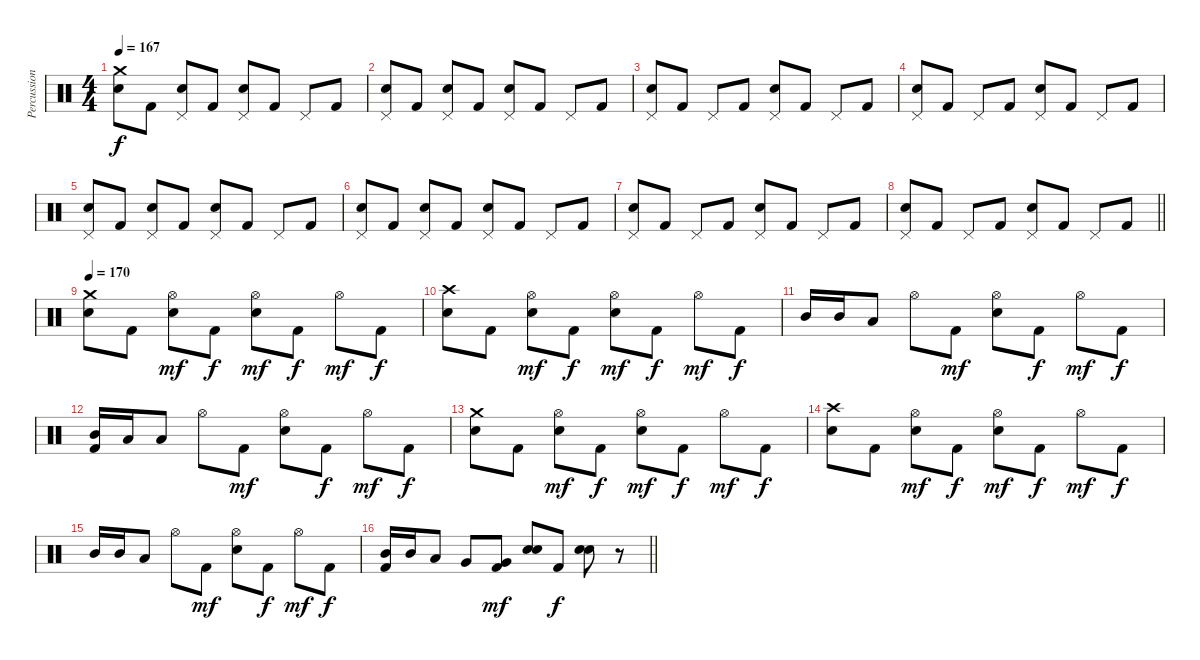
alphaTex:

\track ("Percussion" "Percussion") {instrument percussion}
\staff {score}
\articulation defaults
\ts (4 4)
\section ("" "")
\tempo 167
\clef neutral
\ks c
("Crash medium (hit)" "Electric Snare (hit)").8{dy f} "Kick (hit) 2".8 ("Pedal Hi-Hat (hit)" "Electric Snare (hit)").8 "Kick (hit) 2".8 ("Pedal Hi-Hat (hit)" "Electric Snare (hit)").8 "Kick (hit) 2".8 "Pedal Hi-Hat (hit)".8 "Kick (hit) 2".8 |
("Pedal Hi-Hat (hit)" "Electric Snare (hit)").8 "Kick (hit) 2".8 ("Pedal Hi-Hat (hit)" "Electric Snare (hit)").8 "Kick (hit) 2".8 ("Pedal Hi-Hat (hit)" "Electric Snare (hit)").8 "Kick (hit) 2".8 "Pedal Hi-Hat (hit)".8 "Kick (hit) 2".8 |
("Pedal Hi-Hat (hit)" "Electric Snare (hit)").8 "Kick (hit) 2".8 "Pedal Hi-Hat (hit)".8 "Kick (hit) 2".8 ("Pedal Hi-Hat (hit)" "Electric Snare (hit)").8 "Kick (hit) 2".8 "Pedal Hi-Hat (hit)".8 "Kick (hit) 2".8 |
("Pedal Hi-Hat (hit)" "Electric Snare (hit)").8 "Kick (hit) 2".8 "Pedal Hi-Hat (hit)".8 "Kick (hit) 2".8 ("Pedal Hi-Hat (hit)" "Electric Snare (hit)").8 "Kick (hit) 2".8 "Pedal Hi-Hat (hit)".8 "Kick (hit) 2".8 |
("Pedal Hi-Hat (hit)" "Electric Snare (hit)").8 "Kick (hit) 2".8 ("Pedal Hi-Hat (hit)" "Electric Snare (hit)").8 "Kick (hit) 2".8 ("Pedal Hi-Hat (hit)" "Electric Snare (hit)").8 "Kick (hit) 2".8 "Pedal Hi-Hat (hit)".8 "Kick (hit) 2".8 |
("Pedal Hi-Hat (hit)" "Electric Snare (hit)").8 "Kick (hit) 2".8 ("Pedal Hi-Hat (hit)" "Electric Snare (hit)").8 "Kick (hit) 2".8 ("Pedal Hi-Hat (hit)" "Electric Snare (hit)").8 "Kick (hit) 2".8 "Pedal Hi-Hat (hit)".8 "Kick (hit) 2".8 |
("Pedal Hi-Hat (hit)" "Electric Snare (hit)").8 "Kick (hit) 2".8 "Pedal Hi-Hat (hit)".8 "Kick (hit) 2".8 ("Pedal Hi-Hat (hit)" "Electric Snare (hit)").8 "Kick (hit) 2".8 "Pedal Hi-Hat (hit)".8 "Kick (hit) 2".8 |
\barLineRight lightlight
("Pedal Hi-Hat (hit)" "Electric Snare (hit)").8 "Kick (hit) 2".8 "Pedal Hi-Hat (hit)".8 "Kick (hit) 2".8 ("Pedal Hi-Hat (hit)" "Electric Snare (hit)").8 "Kick (hit) 2".8 "Pedal Hi-Hat (hit)".8 "Kick (hit) 2".8 |
\section ("" "")
\tempo 170
("Crash medium (hit)" "Electric Snare (hit)").8 "Kick (hit) 2".8 ("Hi-Hat (open)" "Electric Snare (hit)").8{dy mf} "Kick (hit) 2".8{dy f} ("Hi-Hat (open)" "Electric Snare (hit)").8{dy mf} "Kick (hit) 2".8{dy f} "Hi-Hat (open)".8{dy mf} "Kick (hit) 2".8{dy f} |
("Crash high (hit)" "Electric Snare (hit)").8 "Kick (hit) 2".8 ("Hi-Hat (open)" "Electric Snare (hit)").8{dy mf} "Kick (hit) 2".8{dy f} ("Hi-Hat (open)" "Electric Snare (hit)").8{dy mf} "Kick (hit) 2".8{dy f} "Hi-Hat (open)".8{dy mf} "Kick (hit) 2".8{dy f} |
"Mid Tom (hit)".16 "Mid Tom (hit)".16 "Low Tom (hit)".8 "Hi-Hat (open)".8 "Kick (hit) 2".8{dy mf} ("Hi-Hat (open)" "Electric Snare (hit)").8 "Kick (hit) 2".8{dy f} "Hi-Hat (open)".8{dy mf} "Kick (hit) 2".8{dy f} |
("Mid Tom (hit)" "Kick (hit) 2").16 "Low Tom (hit)".16 "Low Tom (hit)".8 "Hi-Hat (open)".8 "Kick (hit) 2".8{dy mf} ("Hi-Hat (open)" "Electric Snare (hit)").8 "Kick (hit) 2".8{dy f} "Hi-Hat (open)".8{dy mf} "Kick (hit) 2".8{dy f} |
("Crash medium (hit)" "Electric Snare (hit)").8 "Kick (hit) 2".8 ("Hi-Hat (open)" "Electric Snare (hit)").8{dy mf} "Kick (hit) 2".8{dy f} ("Hi-Hat (open)" "Electric Snare (hit)").8{dy mf} "Kick (hit) 2".8{dy f} "Hi-Hat (open)".8{dy mf} "Kick (hit) 2".8{dy f} |
("Crash high (hit)" "Electric Snare (hit)").8 "Kick (hit) 2".8 ("Hi-Hat (open)" "Electric Snare (hit)").8{dy mf} "Kick (hit) 2".8{dy f} ("Hi-Hat (open)" "Electric Snare (hit)").8{dy mf} "Kick (hit) 2".8{dy f} "Hi-Hat (open)".8{dy mf} "Kick (hit) 2".8{dy f} |
"Mid Tom (hit)".16 "Mid Tom (hit)".16 "Low Tom (hit)".8 "Hi-Hat (open)".8 "Kick (hit) 2".8{dy mf} ("Hi-Hat (open)" "Electric Snare (hit)").8 "Kick (hit) 2".8{dy f} "Hi-Hat (open)".8{dy mf} "Kick (hit) 2".8{dy f} |
\barLineRight lightlight
("Mid Tom (hit)" "Kick (hit) 2").16 "Mid Tom (hit)".16 "Low Tom (hit)".8 "Very Low Tom (hit)".8 ("Very Low Tom (hit)" "Kick (hit) 2").8{dy mf} ("Electric Snare (hit)" "Electric Snare (hit)").8 "Kick (hit) 2".8{dy f} ("Electric Snare (hit)" "Electric Snare (hit)").8 r.8
